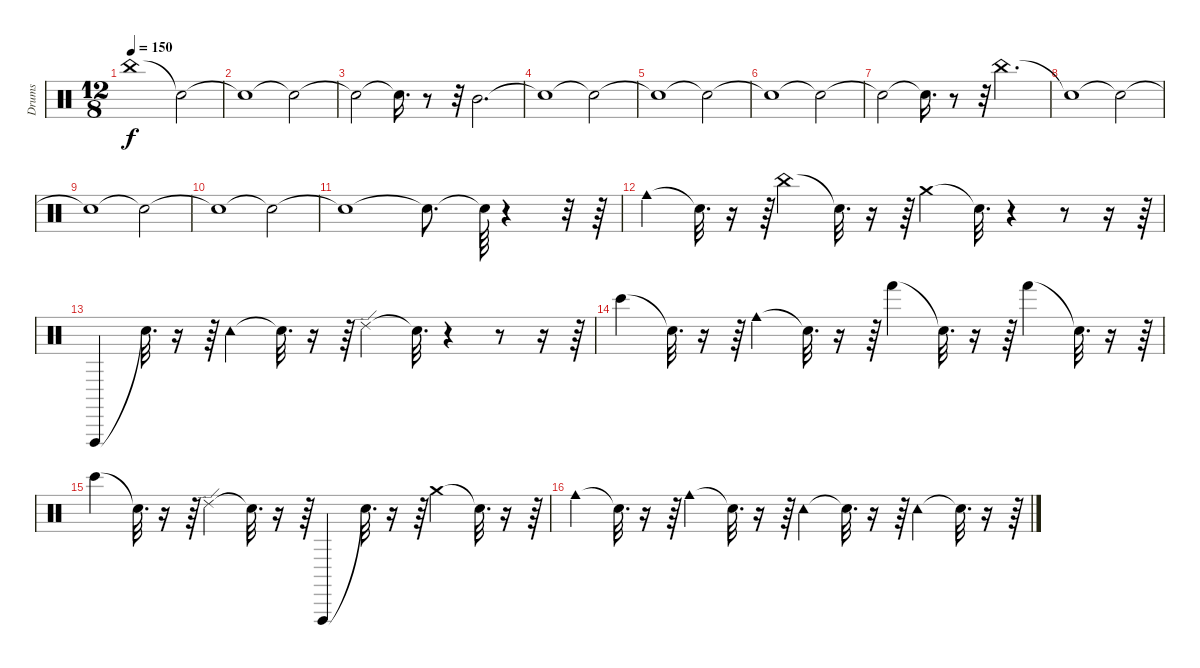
\track ("Drums" "Drums") {instrument percussion}
\staff {score}
\articulation defaults
\ts (12 8)
\tempo 150
\clef neutral
\ks c "China (hit)".1{dy f} "Snare (hit)"{t}.2
|
"Snare (hit)"{t}.1 "Snare (hit)"{t}.2 |
"Snare (hit)"{t}.2 "Snare (hit)"{t}.16{d} r.8 r.32 "Mid Tom (hit)".2{d} |
"Snare (hit)"{t}.1 "Snare (hit)"{t}.2 |
"Snare (hit)"{t}.1 "Snare (hit)"{t}.2 |
"Snare (hit)"{t}.1 "Snare (hit)"{t}.2 |
"Snare (hit)"{t}.2 "Snare (hit)"{t}.16{d} r.8 r.32 "China (hit)".2{d} |
"Snare (hit)"{t}.1 "Snare (hit)"{t}.2 |
"Snare (hit)"{t}.1 "Snare (hit)"{t}.2 |
"Snare (hit)"{t}.1 "Snare (hit)"{t}.2 |
"Snare (hit)"{t}.1 "Snare (hit)"{t}.8{d} "Snare (hit)"{t}.64 r.4 r.32 r.64 |
"Cowbell medium (hit)".4 "Snare (hit)"{t}.32{d} r.16 r.64 "China (hit)".4 "Snare (hit)"{t}.32{d} r.16 r.64 "Crash medium (hit)".4 "Snare (hit)"{t}.32{d} r.4 r.8 r.16 r.64 |
"Vibraslap (hit)".4 "Snare (hit)"{t}.32{d} r.16 r.64 "Tambourine (hit)".4 "Snare (hit)"{t}.32{d} r.16 r.64 "Ride (edge) 2".4 "Snare (hit)"{t}.32{d} r.4 r.8 r.16 r.64 |
"Bongo High (hit)".4 "Snare (hit)"{t}.32{d} r.16 r.64 "Cowbell medium (hit)".4 "Snare (hit)"{t}.32{d} r.16 r.64 "Hand (hit)".4 "Snare (hit)"{t}.32{d} r.16 r.64 "Hand (hit)".4 "Snare (hit)"{t}.32{d} r.16 r.64 |
"Bongo High (hit)".4 "Snare (hit)"{t}.32{d} r.16 r.64 "Ride (edge) 2".4 "Snare (hit)"{t}.32{d} r.16 r.64 "Vibraslap (hit)".4 "Snare (hit)"{t}.32{d} r.16 r.64 "Crash medium (hit)".4 "Snare (hit)"{t}.32{d} r.16 r.64 |
"Cowbell medium (hit)".4 "Snare (hit)"{t}.32{d} r.16 r.64 "Cowbell medium (hit)".4 "Snare (hit)"{t}.32{d} r.16 r.64 "Tambourine (hit)".4 "Snare (hit)"{t}.32{d} r.16 r.64 "Tambourine (hit)".4 "Snare (hit)"{t}.32{d} r.16 r.64
